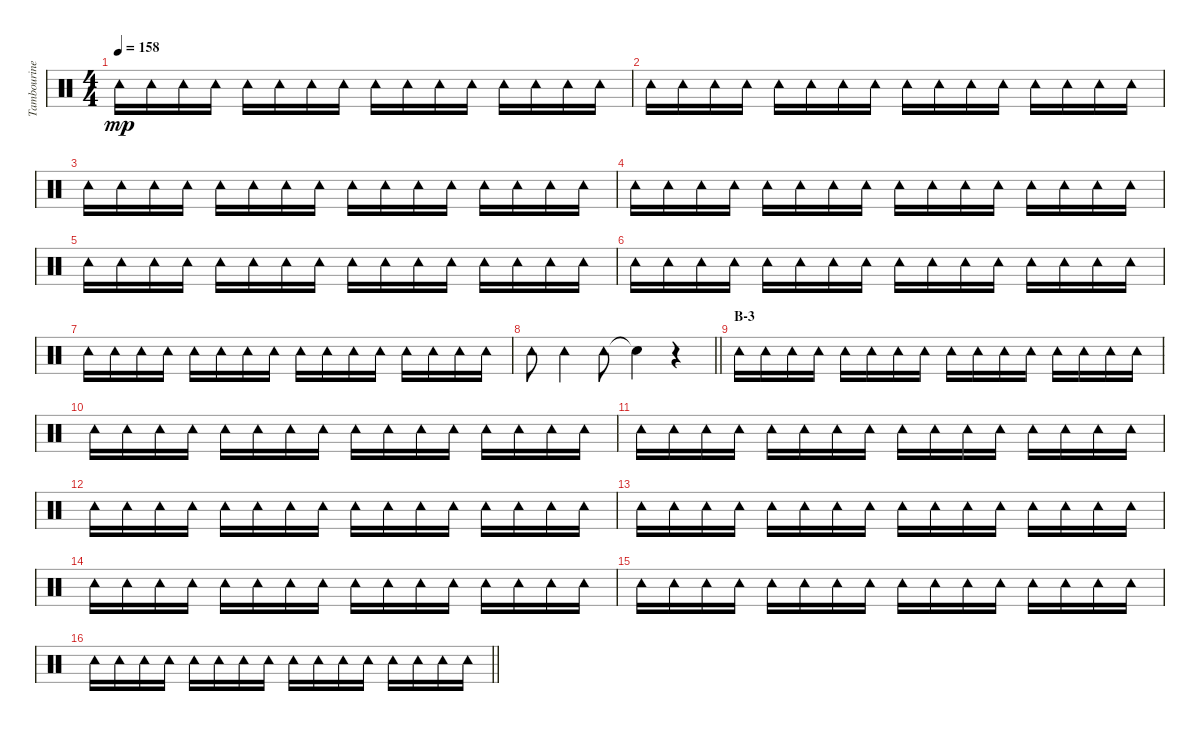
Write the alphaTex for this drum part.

\track ("Tambourine" "Tambourine") {instrument percussion}
\staff {score}
\articulation defaults
\ts (4 4)
\tempo 158
\clef neutral
\ks c "Tambourine (hit)".16{dy mp} "Tambourine (hit)".16 "Tambourine (hit)".16 "Tambourine (hit)".16 "Tambourine (hit)".16 "Tambourine (hit)".16 "Tambourine (hit)".16 "Tambourine (hit)".16 "Tambourine (hit)".16 "Tambourine (hit)".16 "Tambourine (hit)".16 "Tambourine (hit)".16 "Tambourine (hit)".16 "Tambourine (hit)".16 "Tambourine (hit)".16 "Tambourine (hit)".16
|
"Tambourine (hit)".16 "Tambourine (hit)".16 "Tambourine (hit)".16 "Tambourine (hit)".16 "Tambourine (hit)".16 "Tambourine (hit)".16 "Tambourine (hit)".16 "Tambourine (hit)".16 "Tambourine (hit)".16 "Tambourine (hit)".16 "Tambourine (hit)".16 "Tambourine (hit)".16 "Tambourine (hit)".16 "Tambourine (hit)".16 "Tambourine (hit)".16 "Tambourine (hit)".16 |
"Tambourine (hit)".16 "Tambourine (hit)".16 "Tambourine (hit)".16 "Tambourine (hit)".16 "Tambourine (hit)".16 "Tambourine (hit)".16 "Tambourine (hit)".16 "Tambourine (hit)".16 "Tambourine (hit)".16 "Tambourine (hit)".16 "Tambourine (hit)".16 "Tambourine (hit)".16 "Tambourine (hit)".16 "Tambourine (hit)".16 "Tambourine (hit)".16 "Tambourine (hit)".16 |
"Tambourine (hit)".16 "Tambourine (hit)".16 "Tambourine (hit)".16 "Tambourine (hit)".16 "Tambourine (hit)".16 "Tambourine (hit)".16 "Tambourine (hit)".16 "Tambourine (hit)".16 "Tambourine (hit)".16 "Tambourine (hit)".16 "Tambourine (hit)".16 "Tambourine (hit)".16 "Tambourine (hit)".16 "Tambourine (hit)".16 "Tambourine (hit)".16 "Tambourine (hit)".16 |
"Tambourine (hit)".16 "Tambourine (hit)".16 "Tambourine (hit)".16 "Tambourine (hit)".16 "Tambourine (hit)".16 "Tambourine (hit)".16 "Tambourine (hit)".16 "Tambourine (hit)".16 "Tambourine (hit)".16 "Tambourine (hit)".16 "Tambourine (hit)".16 "Tambourine (hit)".16 "Tambourine (hit)".16 "Tambourine (hit)".16 "Tambourine (hit)".16 "Tambourine (hit)".16 |
"Tambourine (hit)".16 "Tambourine (hit)".16 "Tambourine (hit)".16 "Tambourine (hit)".16 "Tambourine (hit)".16 "Tambourine (hit)".16 "Tambourine (hit)".16 "Tambourine (hit)".16 "Tambourine (hit)".16 "Tambourine (hit)".16 "Tambourine (hit)".16 "Tambourine (hit)".16 "Tambourine (hit)".16 "Tambourine (hit)".16 "Tambourine (hit)".16 "Tambourine (hit)".16 |
"Tambourine (hit)".16 "Tambourine (hit)".16 "Tambourine (hit)".16 "Tambourine (hit)".16 "Tambourine (hit)".16 "Tambourine (hit)".16 "Tambourine (hit)".16 "Tambourine (hit)".16 "Tambourine (hit)".16 "Tambourine (hit)".16 "Tambourine (hit)".16 "Tambourine (hit)".16 "Tambourine (hit)".16 "Tambourine (hit)".16 "Tambourine (hit)".16 "Tambourine (hit)".16 |
\barLineRight lightlight "Tambourine (hit)".8 "Tambourine (hit)".4 "Tambourine (hit)".8 "Snare (hit)"{t}.4
r.4 |
\section ("" "B-3")
"Tambourine (hit)".16 "Tambourine (hit)".16 "Tambourine (hit)".16 "Tambourine (hit)".16 "Tambourine (hit)".16 "Tambourine (hit)".16 "Tambourine (hit)".16 "Tambourine (hit)".16 "Tambourine (hit)".16 "Tambourine (hit)".16 "Tambourine (hit)".16 "Tambourine (hit)".16 "Tambourine (hit)".16 "Tambourine (hit)".16 "Tambourine (hit)".16 "Tambourine (hit)".16 |
"Tambourine (hit)".16 "Tambourine (hit)".16 "Tambourine (hit)".16 "Tambourine (hit)".16 "Tambourine (hit)".16 "Tambourine (hit)".16 "Tambourine (hit)".16 "Tambourine (hit)".16 "Tambourine (hit)".16 "Tambourine (hit)".16 "Tambourine (hit)".16 "Tambourine (hit)".16 "Tambourine (hit)".16 "Tambourine (hit)".16 "Tambourine (hit)".16 "Tambourine (hit)".16 |
"Tambourine (hit)".16 "Tambourine (hit)".16 "Tambourine (hit)".16 "Tambourine (hit)".16 "Tambourine (hit)".16 "Tambourine (hit)".16 "Tambourine (hit)".16 "Tambourine (hit)".16 "Tambourine (hit)".16 "Tambourine (hit)".16 "Tambourine (hit)".16 "Tambourine (hit)".16 "Tambourine (hit)".16 "Tambourine (hit)".16 "Tambourine (hit)".16 "Tambourine (hit)".16 |
"Tambourine (hit)".16 "Tambourine (hit)".16 "Tambourine (hit)".16 "Tambourine (hit)".16 "Tambourine (hit)".16 "Tambourine (hit)".16 "Tambourine (hit)".16 "Tambourine (hit)".16 "Tambourine (hit)".16 "Tambourine (hit)".16 "Tambourine (hit)".16 "Tambourine (hit)".16 "Tambourine (hit)".16 "Tambourine (hit)".16 "Tambourine (hit)".16 "Tambourine (hit)".16 |
"Tambourine (hit)".16 "Tambourine (hit)".16 "Tambourine (hit)".16 "Tambourine (hit)".16 "Tambourine (hit)".16 "Tambourine (hit)".16 "Tambourine (hit)".16 "Tambourine (hit)".16 "Tambourine (hit)".16 "Tambourine (hit)".16 "Tambourine (hit)".16 "Tambourine (hit)".16 "Tambourine (hit)".16 "Tambourine (hit)".16 "Tambourine (hit)".16 "Tambourine (hit)".16 |
"Tambourine (hit)".16 "Tambourine (hit)".16 "Tambourine (hit)".16 "Tambourine (hit)".16 "Tambourine (hit)".16 "Tambourine (hit)".16 "Tambourine (hit)".16 "Tambourine (hit)".16 "Tambourine (hit)".16 "Tambourine (hit)".16 "Tambourine (hit)".16 "Tambourine (hit)".16 "Tambourine (hit)".16 "Tambourine (hit)".16 "Tambourine (hit)".16 "Tambourine (hit)".16 |
"Tambourine (hit)".16 "Tambourine (hit)".16 "Tambourine (hit)".16 "Tambourine (hit)".16 "Tambourine (hit)".16 "Tambourine (hit)".16 "Tambourine (hit)".16 "Tambourine (hit)".16 "Tambourine (hit)".16 "Tambourine (hit)".16 "Tambourine (hit)".16 "Tambourine (hit)".16 "Tambourine (hit)".16 "Tambourine (hit)".16 "Tambourine (hit)".16 "Tambourine (hit)".16 |
\barLineRight lightlight "Tambourine (hit)".16 "Tambourine (hit)".16 "Tambourine (hit)".16 "Tambourine (hit)".16 "Tambourine (hit)".16 "Tambourine (hit)".16 "Tambourine (hit)".16 "Tambourine (hit)".16 "Tambourine (hit)".16 "Tambourine (hit)".16 "Tambourine (hit)".16 "Tambourine (hit)".16 "Tambourine (hit)".16 "Tambourine (hit)".16 "Tambourine (hit)".16 "Tambourine (hit)".16
